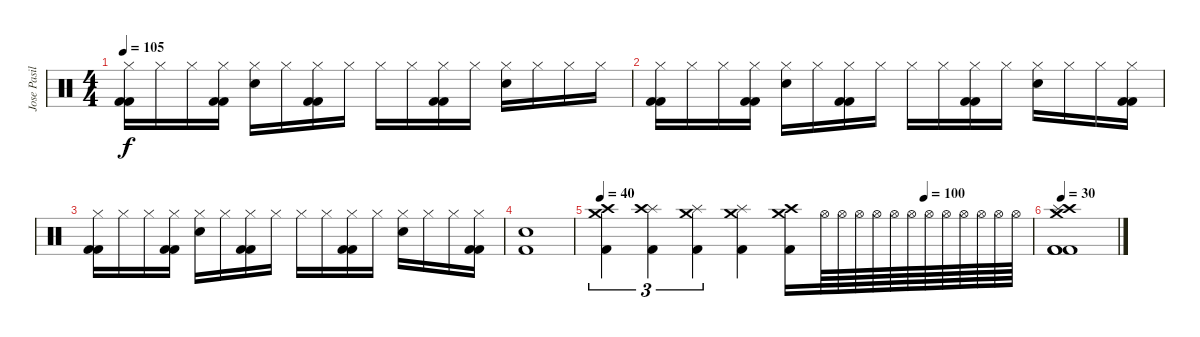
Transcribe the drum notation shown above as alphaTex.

\track ("Jose Pasillas" "Jose Pasil") {instrument percussion}
\staff {score}
\articulation defaults
\ts (4 4)
\tempo 105
\clef neutral
\ks c
("Hi-Hat (closed)" "Kick (hit) 2" "Kick (hit) 2").16{dy f} "Hi-Hat (closed)".16 "Hi-Hat (closed)".16 ("Hi-Hat (closed)" "Kick (hit) 2" "Kick (hit) 2").16 ("Hi-Hat (closed)" "Electric Snare (hit)").16 "Hi-Hat (closed)".16 ("Hi-Hat (closed)" "Kick (hit) 2" "Kick (hit) 2").16 "Hi-Hat (closed)".16 "Hi-Hat (closed)".16 "Hi-Hat (closed)".16 ("Hi-Hat (closed)" "Kick (hit) 2" "Kick (hit) 2").16 "Hi-Hat (closed)".16 ("Hi-Hat (closed)" "Electric Snare (hit)").16 "Hi-Hat (closed)".16 "Hi-Hat (closed)".16 "Hi-Hat (closed)".16 |
("Hi-Hat (closed)" "Kick (hit) 2" "Kick (hit) 2").16 "Hi-Hat (closed)".16 "Hi-Hat (closed)".16 ("Hi-Hat (closed)" "Kick (hit) 2" "Kick (hit) 2").16 ("Hi-Hat (closed)" "Electric Snare (hit)").16 "Hi-Hat (closed)".16 ("Hi-Hat (closed)" "Kick (hit) 2" "Kick (hit) 2").16 "Hi-Hat (closed)".16 "Hi-Hat (closed)".16 "Hi-Hat (closed)".16 ("Hi-Hat (closed)" "Kick (hit) 2" "Kick (hit) 2").16 "Hi-Hat (closed)".16 ("Hi-Hat (closed)" "Electric Snare (hit)").16 "Hi-Hat (closed)".16 "Hi-Hat (closed)".16 ("Hi-Hat (closed)" "Kick (hit) 2" "Kick (hit) 2").16 |
("Hi-Hat (closed)" "Kick (hit) 2" "Kick (hit) 2").16 "Hi-Hat (closed)".16 "Hi-Hat (closed)".16 ("Hi-Hat (closed)" "Kick (hit) 2" "Kick (hit) 2").16 ("Hi-Hat (closed)" "Electric Snare (hit)").16 "Hi-Hat (closed)".16 ("Hi-Hat (closed)" "Kick (hit) 2" "Kick (hit) 2").16 "Hi-Hat (closed)".16 "Hi-Hat (closed)".16 "Hi-Hat (closed)".16 ("Hi-Hat (closed)" "Kick (hit) 2" "Kick (hit) 2").16 "Hi-Hat (closed)".16 ("Hi-Hat (closed)" "Electric Snare (hit)").16 "Hi-Hat (closed)".16 "Hi-Hat (closed)".16 ("Hi-Hat (closed)" "Kick (hit) 2" "Kick (hit) 2").16 |
("Electric Snare (hit)" "Kick (hit) 2").1 |
\tempo 40
\tempo (100 0.75)
("Crash high (hit)" "Crash medium (hit)" "Kick (hit) 2").4{tu (3 2)} ("Splash (hit)" "Crash high (hit)" "Kick (hit) 2").4{tu (3 2)} ("Crash medium (hit)" "Splash (hit)" "Kick (hit) 2").4{tu (3 2)} ("Splash (hit)" "Crash medium (hit)" "Kick (hit) 2").4 ("Crash high (hit)" "Crash medium (hit)" "Kick (hit) 2").16 "Hi-Hat (open)".64 "Hi-Hat (open)".64 "Hi-Hat (open)".64 "Hi-Hat (open)".64 "Hi-Hat (open)".64 "Hi-Hat (open)".64 "Hi-Hat (open)".64 "Hi-Hat (open)".64 "Hi-Hat (open)".64 "Hi-Hat (open)".64 "Hi-Hat (open)".64 "Hi-Hat (open)".64 |
\tempo 20
\tempo 30
("Crash high (hit)" "Crash medium (hit)" "Splash (hit)" "Kick (hit) 2" "Kick (hit) 2" "Kick (hit) 2").1
